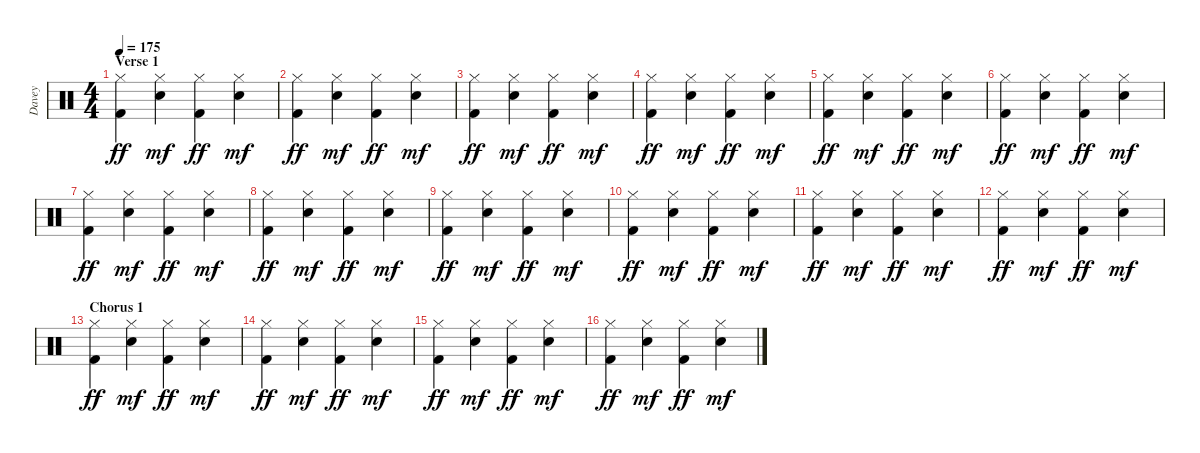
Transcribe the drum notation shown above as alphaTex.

\track ("Davey" "Davey") {instrument percussion}
\staff {score}
\articulation defaults
\ts (4 4)
\section ("" "Verse 1")
\tempo 175
\clef neutral
\ks c
("Hi-Hat (closed)" "Kick (hit) 2").4{dy ff} ("Hi-Hat (closed)" "Electric Snare (hit)").4{dy mf} ("Hi-Hat (closed)" "Kick (hit) 2").4{dy ff} ("Hi-Hat (closed)" "Electric Snare (hit)").4{dy mf} |
("Hi-Hat (closed)" "Kick (hit) 2").4{dy ff} ("Hi-Hat (closed)" "Electric Snare (hit)").4{dy mf} ("Hi-Hat (closed)" "Kick (hit) 2").4{dy ff} ("Hi-Hat (closed)" "Electric Snare (hit)").4{dy mf} |
("Hi-Hat (closed)" "Kick (hit) 2").4{dy ff} ("Hi-Hat (closed)" "Electric Snare (hit)").4{dy mf} ("Hi-Hat (closed)" "Kick (hit) 2").4{dy ff} ("Hi-Hat (closed)" "Electric Snare (hit)").4{dy mf} |
("Hi-Hat (closed)" "Kick (hit) 2").4{dy ff} ("Hi-Hat (closed)" "Electric Snare (hit)").4{dy mf} ("Hi-Hat (closed)" "Kick (hit) 2").4{dy ff} ("Hi-Hat (closed)" "Electric Snare (hit)").4{dy mf} |
("Hi-Hat (closed)" "Kick (hit) 2").4{dy ff} ("Hi-Hat (closed)" "Electric Snare (hit)").4{dy mf} ("Hi-Hat (closed)" "Kick (hit) 2").4{dy ff} ("Hi-Hat (closed)" "Electric Snare (hit)").4{dy mf} |
("Hi-Hat (closed)" "Kick (hit) 2").4{dy ff} ("Hi-Hat (closed)" "Electric Snare (hit)").4{dy mf} ("Hi-Hat (closed)" "Kick (hit) 2").4{dy ff} ("Hi-Hat (closed)" "Electric Snare (hit)").4{dy mf} |
("Hi-Hat (closed)" "Kick (hit) 2").4{dy ff} ("Hi-Hat (closed)" "Electric Snare (hit)").4{dy mf} ("Hi-Hat (closed)" "Kick (hit) 2").4{dy ff} ("Hi-Hat (closed)" "Electric Snare (hit)").4{dy mf} |
("Hi-Hat (closed)" "Kick (hit) 2").4{dy ff} ("Hi-Hat (closed)" "Electric Snare (hit)").4{dy mf} ("Hi-Hat (closed)" "Kick (hit) 2").4{dy ff} ("Hi-Hat (closed)" "Electric Snare (hit)").4{dy mf} |
("Hi-Hat (closed)" "Kick (hit) 2").4{dy ff} ("Hi-Hat (closed)" "Electric Snare (hit)").4{dy mf} ("Hi-Hat (closed)" "Kick (hit) 2").4{dy ff} ("Hi-Hat (closed)" "Electric Snare (hit)").4{dy mf} |
("Hi-Hat (closed)" "Kick (hit) 2").4{dy ff} ("Hi-Hat (closed)" "Electric Snare (hit)").4{dy mf} ("Hi-Hat (closed)" "Kick (hit) 2").4{dy ff} ("Hi-Hat (closed)" "Electric Snare (hit)").4{dy mf} |
("Hi-Hat (closed)" "Kick (hit) 2").4{dy ff} ("Hi-Hat (closed)" "Electric Snare (hit)").4{dy mf} ("Hi-Hat (closed)" "Kick (hit) 2").4{dy ff} ("Hi-Hat (closed)" "Electric Snare (hit)").4{dy mf} |
("Hi-Hat (closed)" "Kick (hit) 2").4{dy ff} ("Hi-Hat (closed)" "Electric Snare (hit)").4{dy mf} ("Hi-Hat (closed)" "Kick (hit) 2").4{dy ff} ("Hi-Hat (closed)" "Electric Snare (hit)").4{dy mf} |
\section ("" "Chorus 1")
("Hi-Hat (closed)" "Kick (hit) 2").4{dy ff} ("Hi-Hat (closed)" "Electric Snare (hit)").4{dy mf} ("Hi-Hat (closed)" "Kick (hit) 2").4{dy ff} ("Hi-Hat (closed)" "Electric Snare (hit)").4{dy mf} |
("Hi-Hat (closed)" "Kick (hit) 2").4{dy ff} ("Hi-Hat (closed)" "Electric Snare (hit)").4{dy mf} ("Hi-Hat (closed)" "Kick (hit) 2").4{dy ff} ("Hi-Hat (closed)" "Electric Snare (hit)").4{dy mf} |
("Hi-Hat (closed)" "Kick (hit) 2").4{dy ff} ("Hi-Hat (closed)" "Electric Snare (hit)").4{dy mf} ("Hi-Hat (closed)" "Kick (hit) 2").4{dy ff} ("Hi-Hat (closed)" "Electric Snare (hit)").4{dy mf} |
("Hi-Hat (closed)" "Kick (hit) 2").4{dy ff} ("Hi-Hat (closed)" "Electric Snare (hit)").4{dy mf} ("Hi-Hat (closed)" "Kick (hit) 2").4{dy ff} ("Hi-Hat (closed)" "Electric Snare (hit)").4{dy mf}
